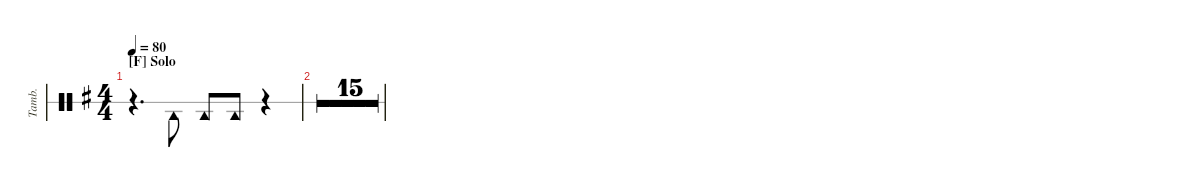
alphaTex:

\hideDynamics
\bracketExtendMode nobrackets
\otherSystemsTrackNameOrientation horizontal
\track ("Tambourine" "Tamb.") {multiBarRest instrument percussion}
\staff {score 1}
\articulation defaults
\ts (4 4)
\section ("F" "Solo")
\tempo 80
\clef neutral
\scale
1.90236
\ks g
r.4{d dy mf beam Down} "Tambourine (hit)"{acc forcenatural}.8{beam Down} "Tambourine (hit)"{acc forcenatural}.8{beam Up} "Tambourine (hit)"{acc forcenatural}.8{beam Up} r.4{beam Up} |
\scale
0.993145 r.1{beam Down} |
\simile firstofdouble
\scale
0.797256 |
\simile secondofdouble
\scale
0.853226 |
\simile firstofdouble
\scale
0.755279 |
\simile secondofdouble
\scale
0.727295 |
\simile firstofdouble
\scale
0.783265 |
\simile secondofdouble
\scale
0.841681
\barLineRight lightlight
|
\simile none
\scale
0.923189 r.1{beam Down} |
\scale
0.923189 r.1{beam Down} |
\scale
0.923189 r.1{beam Down} |
\scale
0.923189 r.1{beam Down} |
\scale
0.923189 r.1{beam Down} |
\scale
0.923189 r.1{beam Down} |
\scale
0.923189 r.1{beam Down} |
\scale
0.923189 r.1{beam Down}
